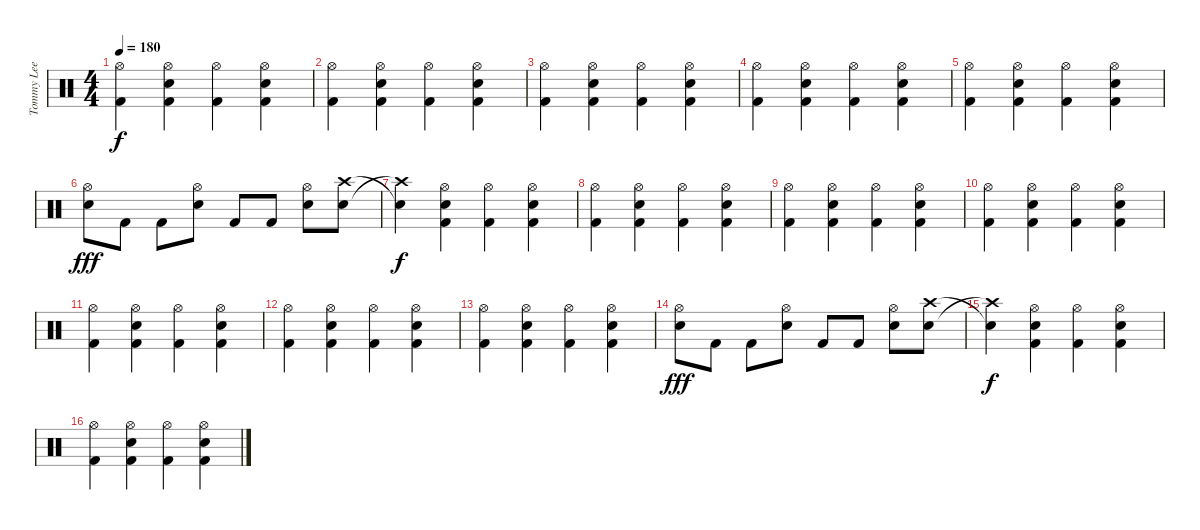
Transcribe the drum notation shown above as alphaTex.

\track ("Tommy Lee" "Tommy Lee") {instrument percussion}
\staff {score}
\articulation defaults
\ts (4 4)
\tempo 180
\clef neutral
\ks c
("Hi-Hat (open)" "Kick (hit) 2").4{dy f} ("Hi-Hat (open)" "Electric Snare (hit)" "Kick (hit) 2").4 ("Hi-Hat (open)" "Kick (hit) 2").4 ("Hi-Hat (open)" "Electric Snare (hit)" "Kick (hit) 2").4 |
("Hi-Hat (open)" "Kick (hit) 2").4 ("Hi-Hat (open)" "Electric Snare (hit)" "Kick (hit) 2").4 ("Hi-Hat (open)" "Kick (hit) 2").4 ("Hi-Hat (open)" "Electric Snare (hit)" "Kick (hit) 2").4 |
("Hi-Hat (open)" "Kick (hit) 2").4 ("Hi-Hat (open)" "Electric Snare (hit)" "Kick (hit) 2").4 ("Hi-Hat (open)" "Kick (hit) 2").4 ("Hi-Hat (open)" "Electric Snare (hit)" "Kick (hit) 2").4 |
("Hi-Hat (open)" "Kick (hit) 2").4 ("Hi-Hat (open)" "Electric Snare (hit)" "Kick (hit) 2").4 ("Hi-Hat (open)" "Kick (hit) 2").4 ("Hi-Hat (open)" "Electric Snare (hit)" "Kick (hit) 2").4 |
("Hi-Hat (open)" "Kick (hit) 2").4 ("Hi-Hat (open)" "Electric Snare (hit)" "Kick (hit) 2").4 ("Hi-Hat (open)" "Kick (hit) 2").4 ("Hi-Hat (open)" "Electric Snare (hit)" "Kick (hit) 2").4 |
("Hi-Hat (open)" "Electric Snare (hit)").8{dy fff} "Kick (hit) 2".8 "Kick (hit) 2".8 ("Hi-Hat (open)" "Electric Snare (hit)").8 "Kick (hit) 2".8 "Kick (hit) 2".8 ("Hi-Hat (open)" "Electric Snare (hit)").8 ("Crash high (hit)" "Electric Snare (hit)").8 |
("Snare (hit)"{t} "Crash high (hit)"{t}).4{dy f} ("Hi-Hat (open)" "Electric Snare (hit)" "Kick (hit) 2").4 ("Hi-Hat (open)" "Kick (hit) 2").4 ("Hi-Hat (open)" "Electric Snare (hit)" "Kick (hit) 2").4 |
("Hi-Hat (open)" "Kick (hit) 2").4 ("Hi-Hat (open)" "Electric Snare (hit)" "Kick (hit) 2").4 ("Hi-Hat (open)" "Kick (hit) 2").4 ("Hi-Hat (open)" "Electric Snare (hit)" "Kick (hit) 2").4 |
("Hi-Hat (open)" "Kick (hit) 2").4 ("Hi-Hat (open)" "Electric Snare (hit)" "Kick (hit) 2").4 ("Hi-Hat (open)" "Kick (hit) 2").4 ("Hi-Hat (open)" "Electric Snare (hit)" "Kick (hit) 2").4 |
("Hi-Hat (open)" "Kick (hit) 2").4 ("Hi-Hat (open)" "Electric Snare (hit)" "Kick (hit) 2").4 ("Hi-Hat (open)" "Kick (hit) 2").4 ("Hi-Hat (open)" "Electric Snare (hit)" "Kick (hit) 2").4 |
("Hi-Hat (open)" "Kick (hit) 2").4 ("Hi-Hat (open)" "Electric Snare (hit)" "Kick (hit) 2").4 ("Hi-Hat (open)" "Kick (hit) 2").4 ("Hi-Hat (open)" "Electric Snare (hit)" "Kick (hit) 2").4 |
("Hi-Hat (open)" "Kick (hit) 2").4 ("Hi-Hat (open)" "Electric Snare (hit)" "Kick (hit) 2").4 ("Hi-Hat (open)" "Kick (hit) 2").4 ("Hi-Hat (open)" "Electric Snare (hit)" "Kick (hit) 2").4 |
("Hi-Hat (open)" "Kick (hit) 2").4 ("Hi-Hat (open)" "Electric Snare (hit)" "Kick (hit) 2").4 ("Hi-Hat (open)" "Kick (hit) 2").4 ("Hi-Hat (open)" "Electric Snare (hit)" "Kick (hit) 2").4 |
("Hi-Hat (open)" "Electric Snare (hit)").8{dy fff} "Kick (hit) 2".8 "Kick (hit) 2".8 ("Hi-Hat (open)" "Electric Snare (hit)").8 "Kick (hit) 2".8 "Kick (hit) 2".8 ("Hi-Hat (open)" "Electric Snare (hit)").8 ("Crash high (hit)" "Electric Snare (hit)").8 |
("Snare (hit)"{t} "Crash high (hit)"{t}).4{dy f} ("Hi-Hat (open)" "Electric Snare (hit)" "Kick (hit) 2").4 ("Hi-Hat (open)" "Kick (hit) 2").4 ("Hi-Hat (open)" "Electric Snare (hit)" "Kick (hit) 2").4 |
("Hi-Hat (open)" "Kick (hit) 2").4 ("Hi-Hat (open)" "Electric Snare (hit)" "Kick (hit) 2").4 ("Hi-Hat (open)" "Kick (hit) 2").4 ("Hi-Hat (open)" "Electric Snare (hit)" "Kick (hit) 2").4
